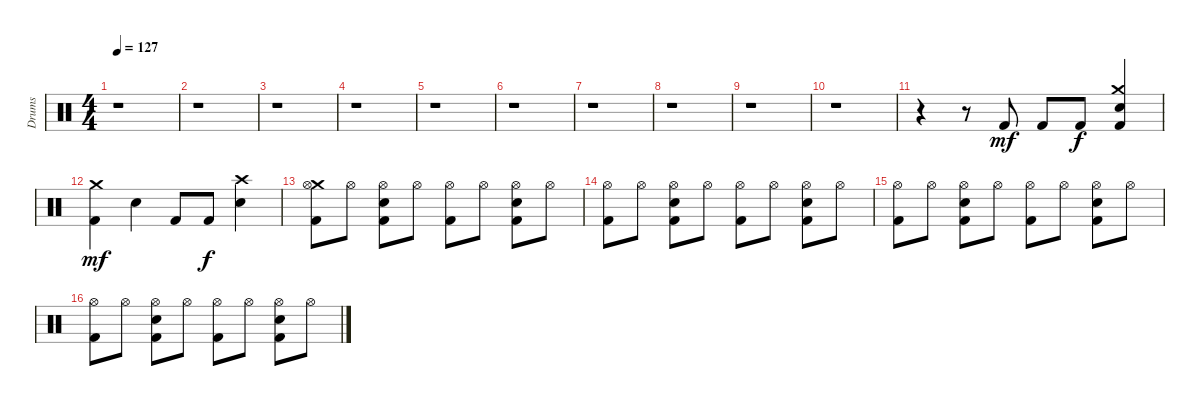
\track ("Drums" "Drums") {instrument percussion}
\staff {score}
\articulation defaults
\ts (4 4)
\tempo 127
\clef neutral
\ks c
r.1{dy f} |
r.1 |
r.1 |
r.1 |
r.1 |
r.1 |
r.1 |
r.1 |
r.1 |
r.1 |
r.4 r.8 "Kick (hit) 2".8{dy mf} "Kick (hit) 2".8 "Kick (hit) 2".8{dy f} ("Kick (hit) 2" "Crash medium (hit)" "Snare (hit) 2").4 |
("Kick (hit) 2" "Crash medium (hit)").4{dy mf} "Snare (hit) 2".4 "Kick (hit) 2".8 "Kick (hit) 2".8{dy f} ("Crash high (hit)" "Snare (hit) 2").4 |
("Kick (hit) 2" "Crash medium (hit)" "Hi-Hat (open)").8 "Hi-Hat (open)".8 ("Kick (hit) 2" "Hi-Hat (open)" "Snare (hit) 2").8 "Hi-Hat (open)".8 ("Kick (hit) 2" "Hi-Hat (open)").8 "Hi-Hat (open)".8 ("Kick (hit) 2" "Hi-Hat (open)" "Snare (hit) 2").8 "Hi-Hat (open)".8 |
("Kick (hit) 2" "Hi-Hat (open)").8 "Hi-Hat (open)".8 ("Kick (hit) 2" "Hi-Hat (open)" "Snare (hit) 2").8 "Hi-Hat (open)".8 ("Kick (hit) 2" "Hi-Hat (open)").8 "Hi-Hat (open)".8 ("Kick (hit) 2" "Hi-Hat (open)" "Snare (hit) 2").8 "Hi-Hat (open)".8 |
("Kick (hit) 2" "Hi-Hat (open)").8 "Hi-Hat (open)".8 ("Kick (hit) 2" "Hi-Hat (open)" "Snare (hit) 2").8 "Hi-Hat (open)".8 ("Kick (hit) 2" "Hi-Hat (open)").8 "Hi-Hat (open)".8 ("Kick (hit) 2" "Hi-Hat (open)" "Snare (hit) 2").8 "Hi-Hat (open)".8 |
("Kick (hit) 2" "Hi-Hat (open)").8 "Hi-Hat (open)".8 ("Kick (hit) 2" "Hi-Hat (open)" "Snare (hit) 2").8 "Hi-Hat (open)".8 ("Kick (hit) 2" "Hi-Hat (open)").8 "Hi-Hat (open)".8 ("Kick (hit) 2" "Hi-Hat (open)" "Snare (hit) 2").8 "Hi-Hat (open)".8
